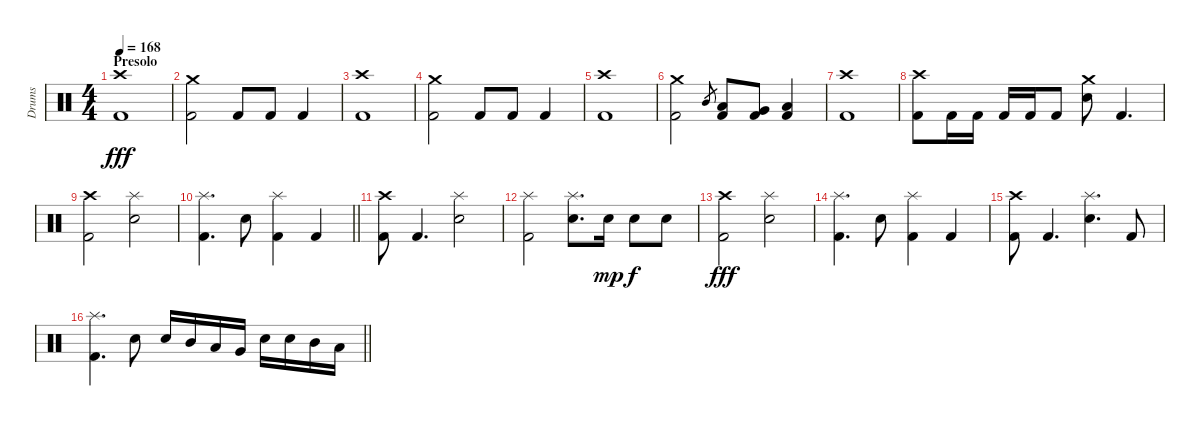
\track ("Drums" "Drums") {instrument percussion}
\staff {score}
\articulation defaults
\ts (4 4)
\section ("" "Presolo")
\tempo 168
\clef neutral
\ks aminor
("Crash high (hit)" "Kick (hit) 2").1{dy fff} |
("Crash medium (hit)" "Kick (hit) 2").2 "Kick (hit) 2".8 "Kick (hit) 2".8 "Kick (hit) 2".4 |
("Crash high (hit)" "Kick (hit) 2").1 |
("Crash medium (hit)" "Kick (hit) 2").2 "Kick (hit) 2".8 "Kick (hit) 2".8 "Kick (hit) 2".4 |
("Crash high (hit)" "Kick (hit) 2").1 |
("Crash medium (hit)" "Kick (hit) 2").2 "Mid Tom (hit)".8{gr} ("Low Tom (hit)" "Kick (hit) 2").8 ("Very Low Tom (hit)" "Kick (hit) 2").8 ("Low Floor Tom (hit)" "Kick (hit) 2").4 |
("Crash high (hit)" "Kick (hit) 2").1 |
("Crash high (hit)" "Kick (hit) 2").8 "Kick (hit) 2".16 "Kick (hit) 2".16 "Kick (hit) 2".16 "Kick (hit) 2".16 "Kick (hit) 2".8 ("Crash medium (hit)" "Snare (hit) 2").8 "Kick (hit) 2".4{d} |
("Crash high (hit)" "Kick (hit) 2").2 ("Splash (hit)" "Snare (hit) 2").2 |
\barLineRight lightlight
("Splash (hit)" "Kick (hit) 2").4{d} "Snare (hit) 2".8 ("Splash (hit)" "Kick (hit) 2").4 "Kick (hit) 2".4 |
("Crash high (hit)" "Kick (hit) 2").8 "Kick (hit) 2".4{d} ("Splash (hit)" "Snare (hit) 2").2 |
("Splash (hit)" "Kick (hit) 2").2 ("Splash (hit)" "Snare (hit) 2").8{d} "Snare (hit) 2".16{dy mp} "Snare (hit) 2".8{dy f} "Snare (hit) 2".8 |
("Crash high (hit)" "Kick (hit) 2").2{dy fff} ("Splash (hit)" "Snare (hit) 2").2 |
("Splash (hit)" "Kick (hit) 2").4{d} "Snare (hit) 2".8 ("Splash (hit)" "Kick (hit) 2").4 "Kick (hit) 2".4 |
("Crash high (hit)" "Kick (hit) 2").8 "Kick (hit) 2".4{d} ("Splash (hit)" "Snare (hit) 2").4{d} "Kick (hit) 2".8 |
\barLineRight lightlight
("Splash (hit)" "Kick (hit) 2").4{d} "Snare (hit) 2".8 "Snare (hit) 2".16 "Mid Tom (hit)".16 "Low Tom (hit)".16 "Very Low Tom (hit)".16 "Snare (hit) 2".16 "Snare (hit) 2".16 "Mid Tom (hit)".16 "Low Tom (hit)".16
